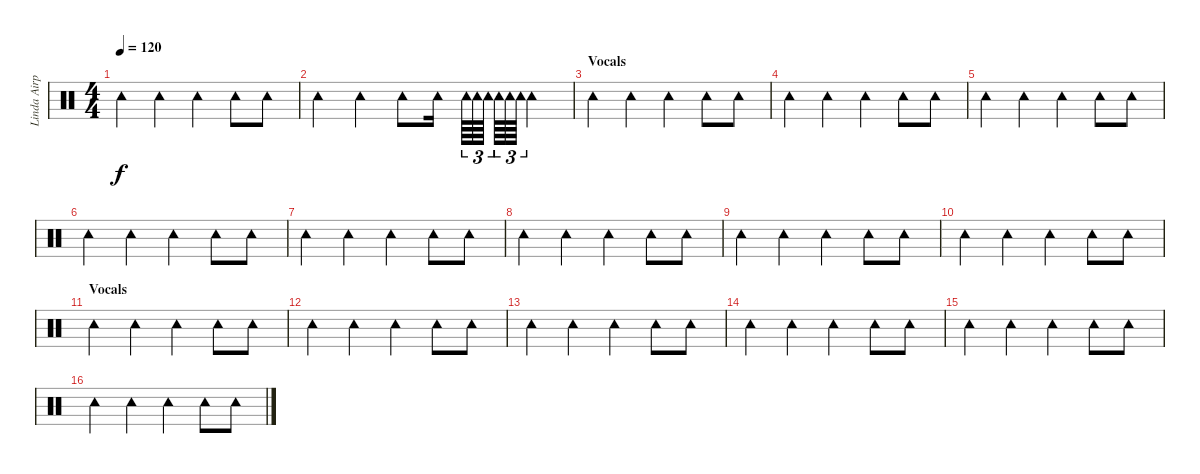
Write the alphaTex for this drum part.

\track ("Linda Airplane" "Linda Airp") {instrument percussion}
\staff {score}
\articulation defaults
\ts (4 4)
\tempo 120
\clef neutral
\ks c "Tambourine (hit)".4{dy f} "Tambourine (hit)".4 "Tambourine (hit)".4 "Tambourine (hit)".8 "Tambourine (hit)".8
|
"Tambourine (hit)".4 "Tambourine (hit)".4 "Tambourine (hit)".8 "Tambourine (hit)".16 "Tambourine (hit)".64{tu (3 2)} "Tambourine (hit)".64{tu (3 2)} "Tambourine (hit)".64{tu (3 2)} "Tambourine (hit)".64{tu (3 2)} "Tambourine (hit)".64{tu (3 2)} "Tambourine (hit)".64{tu (3 2)} "Tambourine (hit)".4 |
\section ("" "Vocals")
"Tambourine (hit)".4 "Tambourine (hit)".4 "Tambourine (hit)".4 "Tambourine (hit)".8 "Tambourine (hit)".8 |
"Tambourine (hit)".4 "Tambourine (hit)".4 "Tambourine (hit)".4 "Tambourine (hit)".8 "Tambourine (hit)".8 |
"Tambourine (hit)".4 "Tambourine (hit)".4 "Tambourine (hit)".4 "Tambourine (hit)".8 "Tambourine (hit)".8 |
"Tambourine (hit)".4 "Tambourine (hit)".4 "Tambourine (hit)".4 "Tambourine (hit)".8 "Tambourine (hit)".8 |
"Tambourine (hit)".4 "Tambourine (hit)".4 "Tambourine (hit)".4 "Tambourine (hit)".8 "Tambourine (hit)".8 |
"Tambourine (hit)".4 "Tambourine (hit)".4 "Tambourine (hit)".4 "Tambourine (hit)".8 "Tambourine (hit)".8 |
"Tambourine (hit)".4 "Tambourine (hit)".4 "Tambourine (hit)".4 "Tambourine (hit)".8 "Tambourine (hit)".8 |
"Tambourine (hit)".4 "Tambourine (hit)".4 "Tambourine (hit)".4 "Tambourine (hit)".8 "Tambourine (hit)".8 |
\section ("" "Vocals")
"Tambourine (hit)".4 "Tambourine (hit)".4 "Tambourine (hit)".4 "Tambourine (hit)".8 "Tambourine (hit)".8 |
"Tambourine (hit)".4 "Tambourine (hit)".4 "Tambourine (hit)".4 "Tambourine (hit)".8 "Tambourine (hit)".8 |
"Tambourine (hit)".4 "Tambourine (hit)".4 "Tambourine (hit)".4 "Tambourine (hit)".8 "Tambourine (hit)".8 |
"Tambourine (hit)".4 "Tambourine (hit)".4 "Tambourine (hit)".4 "Tambourine (hit)".8 "Tambourine (hit)".8 |
"Tambourine (hit)".4 "Tambourine (hit)".4 "Tambourine (hit)".4 "Tambourine (hit)".8 "Tambourine (hit)".8 |
"Tambourine (hit)".4 "Tambourine (hit)".4 "Tambourine (hit)".4 "Tambourine (hit)".8 "Tambourine (hit)".8
